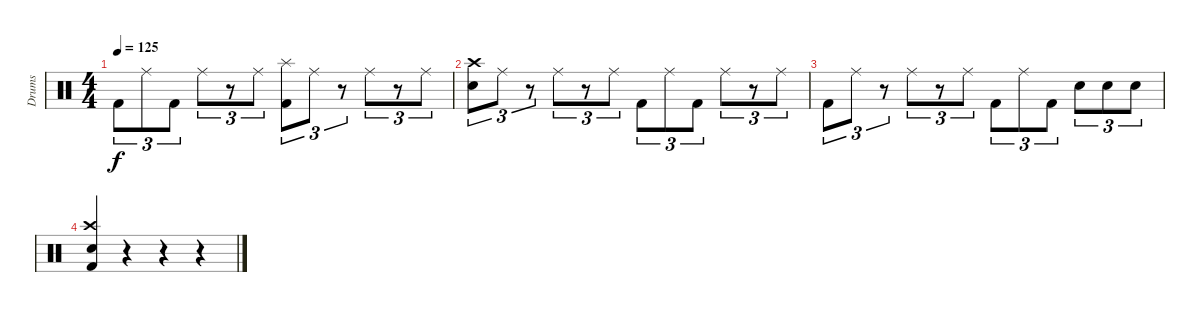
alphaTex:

\track ("Drums" "Drums") {instrument percussion}
\staff {score}
\articulation defaults
\ts (4 4)
\tempo 125
\clef neutral
\ks c "Kick (hit) 2".8{tu (3 2) dy f} "Ride (middle)".8{tu (3 2)} "Kick (hit) 2".8{tu (3 2)} "Ride (middle)".8{tu (3 2)}
r.8{tu (3 2)} "Ride (middle)".8{tu (3 2)} ("Splash (hit)" "Kick (hit) 2").8{tu (3 2)} "Ride (middle)".8{tu (3 2)} r.8{tu (3 2)} "Ride (middle)".8{tu (3 2)} r.8{tu (3 2)} "Ride (middle)".8{tu (3 2)} |
("Crash high (hit)" "Electric Snare (hit)").8{tu (3 2)} "Ride (middle)".8{tu (3 2)} r.8{tu (3 2)} "Ride (middle)".8{tu (3 2)} r.8{tu (3 2)} "Ride (middle)".8{tu (3 2)} "Kick (hit) 2".8{tu (3 2)} "Ride (middle)".8{tu (3 2)} "Kick (hit) 2".8{tu (3 2)} "Ride (middle)".8{tu (3 2)} r.8{tu (3 2)} "Ride (middle)".8{tu (3 2)} |
"Kick (hit) 2".8{tu (3 2)} "Ride (middle)".8{tu (3 2)} r.8{tu (3 2)} "Ride (middle)".8{tu (3 2)} r.8{tu (3 2)} "Ride (middle)".8{tu (3 2)} "Kick (hit) 2".8{tu (3 2)} "Ride (middle)".8{tu (3 2)} "Kick (hit) 2".8{tu (3 2)} "Electric Snare (hit)".8{tu (3 2)} "Electric Snare (hit)".8{tu (3 2)} "Electric Snare (hit)".8{tu (3 2)} |
("Crash high (hit)" "Electric Snare (hit)" "Kick (hit) 2").4 r.4 r.4 r.4
